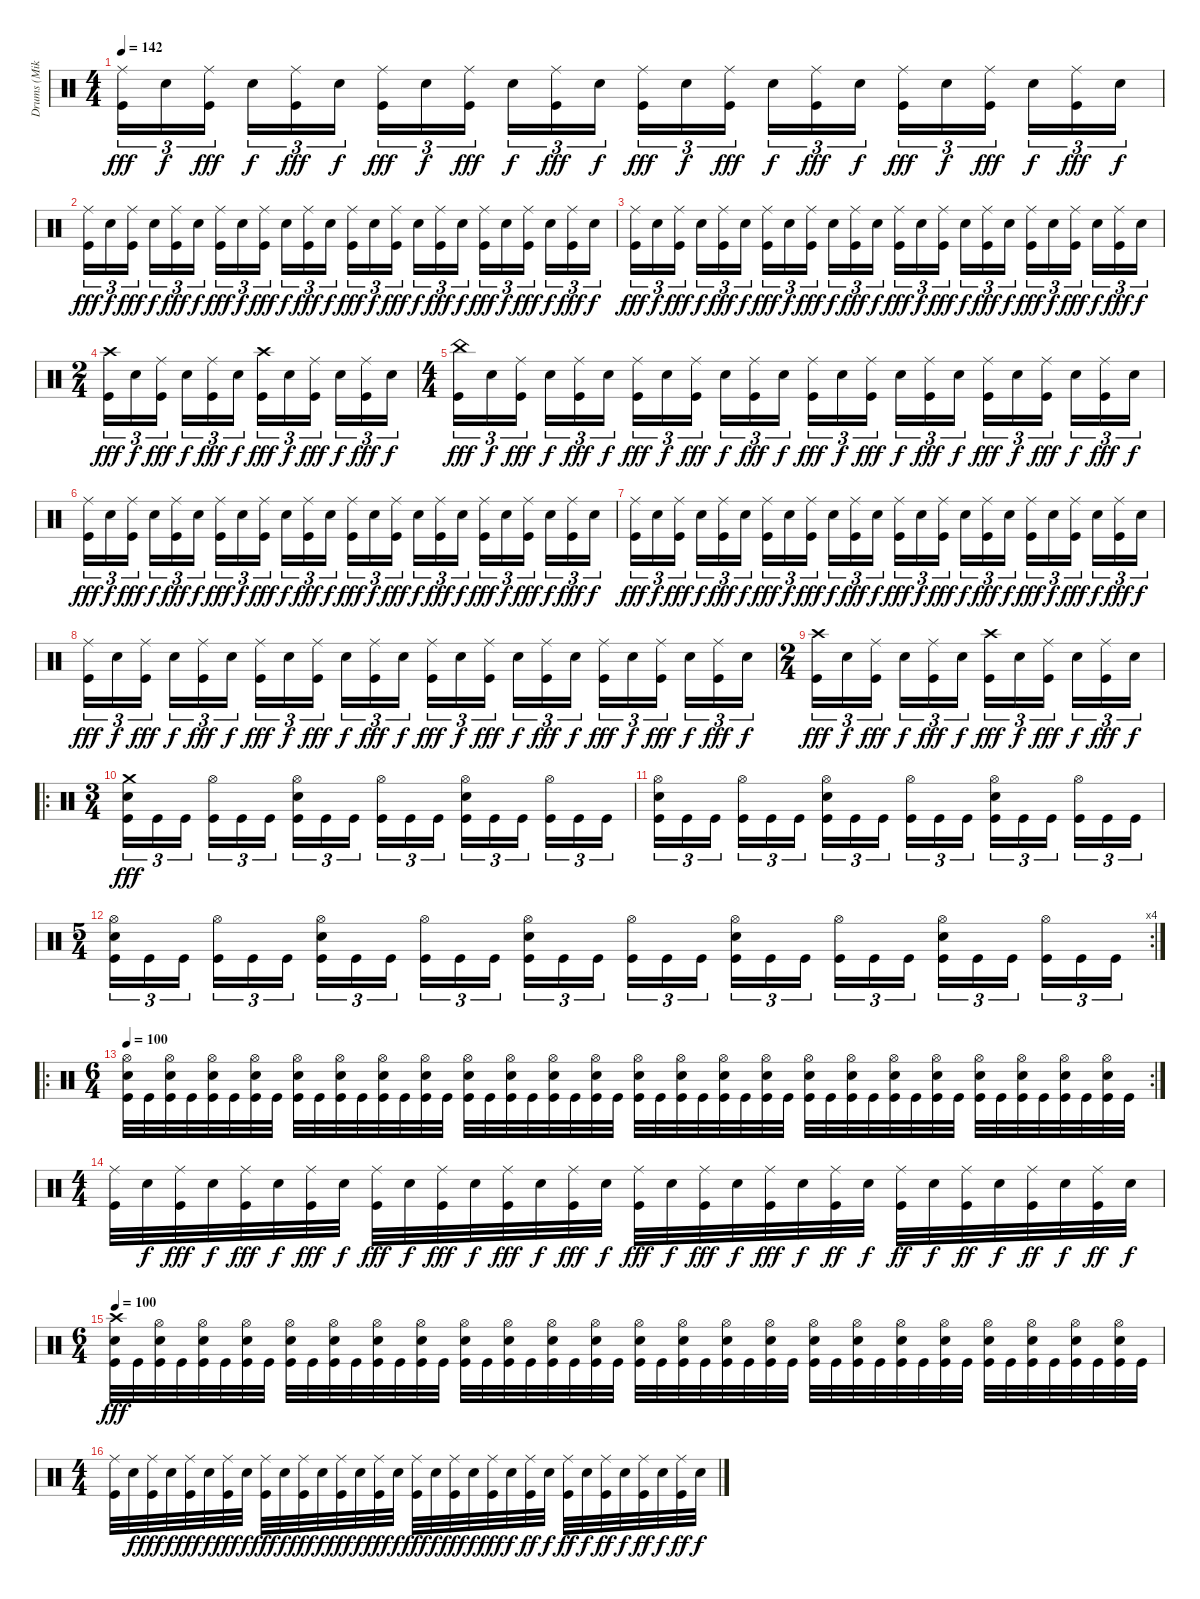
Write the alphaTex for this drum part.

\track ("Drums (Mike)" "Drums (Mik") {instrument percussion}
\staff {score}
\articulation defaults
\ts (4 4)
\tempo 142
\clef neutral
\ks c
("Ride (middle)" "Kick (hit)").16{tu (3 2) dy fff} "Electric Snare (hit)".16{tu (3 2) dy f} ("Ride (middle)" "Kick (hit)").16{tu (3 2) dy fff} "Electric Snare (hit)".16{tu (3 2) dy f} ("Ride (middle)" "Kick (hit)").16{tu (3 2) dy fff} "Electric Snare (hit)".16{tu (3 2) dy f} ("Ride (middle)" "Kick (hit)").16{tu (3 2) dy fff} "Electric Snare (hit)".16{tu (3 2) dy f} ("Ride (middle)" "Kick (hit)").16{tu (3 2) dy fff} "Electric Snare (hit)".16{tu (3 2) dy f} ("Ride (middle)" "Kick (hit)").16{tu (3 2) dy fff} "Electric Snare (hit)".16{tu (3 2) dy f} ("Ride (middle)" "Kick (hit)").16{tu (3 2) dy fff} "Electric Snare (hit)".16{tu (3 2) dy f} ("Ride (middle)" "Kick (hit)").16{tu (3 2) dy fff} "Electric Snare (hit)".16{tu (3 2) dy f} ("Ride (middle)" "Kick (hit)").16{tu (3 2) dy fff} "Electric Snare (hit)".16{tu (3 2) dy f} ("Ride (middle)" "Kick (hit)").16{tu (3 2) dy fff} "Electric Snare (hit)".16{tu (3 2) dy f} ("Ride (middle)" "Kick (hit)").16{tu (3 2) dy fff} "Electric Snare (hit)".16{tu (3 2) dy f} ("Ride (middle)" "Kick (hit)").16{tu (3 2) dy fff} "Electric Snare (hit)".16{tu (3 2) dy f} |
("Ride (middle)" "Kick (hit)").16{tu (3 2) dy fff} "Electric Snare (hit)".16{tu (3 2) dy f} ("Ride (middle)" "Kick (hit)").16{tu (3 2) dy fff} "Electric Snare (hit)".16{tu (3 2) dy f} ("Ride (middle)" "Kick (hit)").16{tu (3 2) dy fff} "Electric Snare (hit)".16{tu (3 2) dy f} ("Ride (middle)" "Kick (hit)").16{tu (3 2) dy fff} "Electric Snare (hit)".16{tu (3 2) dy f} ("Ride (middle)" "Kick (hit)").16{tu (3 2) dy fff} "Electric Snare (hit)".16{tu (3 2) dy f} ("Ride (middle)" "Kick (hit)").16{tu (3 2) dy fff} "Electric Snare (hit)".16{tu (3 2) dy f} ("Ride (middle)" "Kick (hit)").16{tu (3 2) dy fff} "Electric Snare (hit)".16{tu (3 2) dy f} ("Ride (middle)" "Kick (hit)").16{tu (3 2) dy fff} "Electric Snare (hit)".16{tu (3 2) dy f} ("Ride (middle)" "Kick (hit)").16{tu (3 2) dy fff} "Electric Snare (hit)".16{tu (3 2) dy f} ("Ride (middle)" "Kick (hit)").16{tu (3 2) dy fff} "Electric Snare (hit)".16{tu (3 2) dy f} ("Ride (middle)" "Kick (hit)").16{tu (3 2) dy fff} "Electric Snare (hit)".16{tu (3 2) dy f} ("Ride (middle)" "Kick (hit)").16{tu (3 2) dy fff} "Electric Snare (hit)".16{tu (3 2) dy f} |
("Ride (middle)" "Kick (hit)").16{tu (3 2) dy fff} "Electric Snare (hit)".16{tu (3 2) dy f} ("Ride (middle)" "Kick (hit)").16{tu (3 2) dy fff} "Electric Snare (hit)".16{tu (3 2) dy f} ("Ride (middle)" "Kick (hit)").16{tu (3 2) dy fff} "Electric Snare (hit)".16{tu (3 2) dy f} ("Ride (middle)" "Kick (hit)").16{tu (3 2) dy fff} "Electric Snare (hit)".16{tu (3 2) dy f} ("Ride (middle)" "Kick (hit)").16{tu (3 2) dy fff} "Electric Snare (hit)".16{tu (3 2) dy f} ("Ride (middle)" "Kick (hit)").16{tu (3 2) dy fff} "Electric Snare (hit)".16{tu (3 2) dy f} ("Ride (middle)" "Kick (hit)").16{tu (3 2) dy fff} "Electric Snare (hit)".16{tu (3 2) dy f} ("Ride (middle)" "Kick (hit)").16{tu (3 2) dy fff} "Electric Snare (hit)".16{tu (3 2) dy f} ("Ride (middle)" "Kick (hit)").16{tu (3 2) dy fff} "Electric Snare (hit)".16{tu (3 2) dy f} ("Ride (middle)" "Kick (hit)").16{tu (3 2) dy fff} "Electric Snare (hit)".16{tu (3 2) dy f} ("Ride (middle)" "Kick (hit)").16{tu (3 2) dy fff} "Electric Snare (hit)".16{tu (3 2) dy f} ("Ride (middle)" "Kick (hit)").16{tu (3 2) dy fff} "Electric Snare (hit)".16{tu (3 2) dy f} |
\ts (2 4)
("Crash high (hit)" "Kick (hit)").16{tu (3 2) dy fff} "Electric Snare (hit)".16{tu (3 2) dy f} ("Ride (middle)" "Kick (hit)").16{tu (3 2) dy fff} "Electric Snare (hit)".16{tu (3 2) dy f} ("Ride (middle)" "Kick (hit)").16{tu (3 2) dy fff} "Electric Snare (hit)".16{tu (3 2) dy f} ("Crash high (hit)" "Kick (hit)").16{tu (3 2) dy fff} "Electric Snare (hit)".16{tu (3 2) dy f} ("Ride (middle)" "Kick (hit)").16{tu (3 2) dy fff} "Electric Snare (hit)".16{tu (3 2) dy f} ("Ride (middle)" "Kick (hit)").16{tu (3 2) dy fff} "Electric Snare (hit)".16{tu (3 2) dy f} |
\ts (4 4)
("China (hit)" "Kick (hit)").16{tu (3 2) dy fff} "Electric Snare (hit)".16{tu (3 2) dy f} ("Ride (middle)" "Kick (hit)").16{tu (3 2) dy fff} "Electric Snare (hit)".16{tu (3 2) dy f} ("Ride (middle)" "Kick (hit)").16{tu (3 2) dy fff} "Electric Snare (hit)".16{tu (3 2) dy f} ("Ride (middle)" "Kick (hit)").16{tu (3 2) dy fff} "Electric Snare (hit)".16{tu (3 2) dy f} ("Ride (middle)" "Kick (hit)").16{tu (3 2) dy fff} "Electric Snare (hit)".16{tu (3 2) dy f} ("Ride (middle)" "Kick (hit)").16{tu (3 2) dy fff} "Electric Snare (hit)".16{tu (3 2) dy f} ("Ride (middle)" "Kick (hit)").16{tu (3 2) dy fff} "Electric Snare (hit)".16{tu (3 2) dy f} ("Ride (middle)" "Kick (hit)").16{tu (3 2) dy fff} "Electric Snare (hit)".16{tu (3 2) dy f} ("Ride (middle)" "Kick (hit)").16{tu (3 2) dy fff} "Electric Snare (hit)".16{tu (3 2) dy f} ("Ride (middle)" "Kick (hit)").16{tu (3 2) dy fff} "Electric Snare (hit)".16{tu (3 2) dy f} ("Ride (middle)" "Kick (hit)").16{tu (3 2) dy fff} "Electric Snare (hit)".16{tu (3 2) dy f} ("Ride (middle)" "Kick (hit)").16{tu (3 2) dy fff} "Electric Snare (hit)".16{tu (3 2) dy f} |
("Ride (middle)" "Kick (hit)").16{tu (3 2) dy fff} "Electric Snare (hit)".16{tu (3 2) dy f} ("Ride (middle)" "Kick (hit)").16{tu (3 2) dy fff} "Electric Snare (hit)".16{tu (3 2) dy f} ("Ride (middle)" "Kick (hit)").16{tu (3 2) dy fff} "Electric Snare (hit)".16{tu (3 2) dy f} ("Ride (middle)" "Kick (hit)").16{tu (3 2) dy fff} "Electric Snare (hit)".16{tu (3 2) dy f} ("Ride (middle)" "Kick (hit)").16{tu (3 2) dy fff} "Electric Snare (hit)".16{tu (3 2) dy f} ("Ride (middle)" "Kick (hit)").16{tu (3 2) dy fff} "Electric Snare (hit)".16{tu (3 2) dy f} ("Ride (middle)" "Kick (hit)").16{tu (3 2) dy fff} "Electric Snare (hit)".16{tu (3 2) dy f} ("Ride (middle)" "Kick (hit)").16{tu (3 2) dy fff} "Electric Snare (hit)".16{tu (3 2) dy f} ("Ride (middle)" "Kick (hit)").16{tu (3 2) dy fff} "Electric Snare (hit)".16{tu (3 2) dy f} ("Ride (middle)" "Kick (hit)").16{tu (3 2) dy fff} "Electric Snare (hit)".16{tu (3 2) dy f} ("Ride (middle)" "Kick (hit)").16{tu (3 2) dy fff} "Electric Snare (hit)".16{tu (3 2) dy f} ("Ride (middle)" "Kick (hit)").16{tu (3 2) dy fff} "Electric Snare (hit)".16{tu (3 2) dy f} |
("Ride (middle)" "Kick (hit)").16{tu (3 2) dy fff} "Electric Snare (hit)".16{tu (3 2) dy f} ("Ride (middle)" "Kick (hit)").16{tu (3 2) dy fff} "Electric Snare (hit)".16{tu (3 2) dy f} ("Ride (middle)" "Kick (hit)").16{tu (3 2) dy fff} "Electric Snare (hit)".16{tu (3 2) dy f} ("Ride (middle)" "Kick (hit)").16{tu (3 2) dy fff} "Electric Snare (hit)".16{tu (3 2) dy f} ("Ride (middle)" "Kick (hit)").16{tu (3 2) dy fff} "Electric Snare (hit)".16{tu (3 2) dy f} ("Ride (middle)" "Kick (hit)").16{tu (3 2) dy fff} "Electric Snare (hit)".16{tu (3 2) dy f} ("Ride (middle)" "Kick (hit)").16{tu (3 2) dy fff} "Electric Snare (hit)".16{tu (3 2) dy f} ("Ride (middle)" "Kick (hit)").16{tu (3 2) dy fff} "Electric Snare (hit)".16{tu (3 2) dy f} ("Ride (middle)" "Kick (hit)").16{tu (3 2) dy fff} "Electric Snare (hit)".16{tu (3 2) dy f} ("Ride (middle)" "Kick (hit)").16{tu (3 2) dy fff} "Electric Snare (hit)".16{tu (3 2) dy f} ("Ride (middle)" "Kick (hit)").16{tu (3 2) dy fff} "Electric Snare (hit)".16{tu (3 2) dy f} ("Ride (middle)" "Kick (hit)").16{tu (3 2) dy fff} "Electric Snare (hit)".16{tu (3 2) dy f} |
("Ride (middle)" "Kick (hit)").16{tu (3 2) dy fff} "Electric Snare (hit)".16{tu (3 2) dy f} ("Ride (middle)" "Kick (hit)").16{tu (3 2) dy fff} "Electric Snare (hit)".16{tu (3 2) dy f} ("Ride (middle)" "Kick (hit)").16{tu (3 2) dy fff} "Electric Snare (hit)".16{tu (3 2) dy f} ("Ride (middle)" "Kick (hit)").16{tu (3 2) dy fff} "Electric Snare (hit)".16{tu (3 2) dy f} ("Ride (middle)" "Kick (hit)").16{tu (3 2) dy fff} "Electric Snare (hit)".16{tu (3 2) dy f} ("Ride (middle)" "Kick (hit)").16{tu (3 2) dy fff} "Electric Snare (hit)".16{tu (3 2) dy f} ("Ride (middle)" "Kick (hit)").16{tu (3 2) dy fff} "Electric Snare (hit)".16{tu (3 2) dy f} ("Ride (middle)" "Kick (hit)").16{tu (3 2) dy fff} "Electric Snare (hit)".16{tu (3 2) dy f} ("Ride (middle)" "Kick (hit)").16{tu (3 2) dy fff} "Electric Snare (hit)".16{tu (3 2) dy f} ("Ride (middle)" "Kick (hit)").16{tu (3 2) dy fff} "Electric Snare (hit)".16{tu (3 2) dy f} ("Ride (middle)" "Kick (hit)").16{tu (3 2) dy fff} "Electric Snare (hit)".16{tu (3 2) dy f} ("Ride (middle)" "Kick (hit)").16{tu (3 2) dy fff} "Electric Snare (hit)".16{tu (3 2) dy f} |
\ts (2 4)
("Crash high (hit)" "Kick (hit)").16{tu (3 2) dy fff} "Electric Snare (hit)".16{tu (3 2) dy f} ("Ride (middle)" "Kick (hit)").16{tu (3 2) dy fff} "Electric Snare (hit)".16{tu (3 2) dy f} ("Ride (middle)" "Kick (hit)").16{tu (3 2) dy fff} "Electric Snare (hit)".16{tu (3 2) dy f} ("Crash high (hit)" "Kick (hit)").16{tu (3 2) dy fff} "Electric Snare (hit)".16{tu (3 2) dy f} ("Ride (middle)" "Kick (hit)").16{tu (3 2) dy fff} "Electric Snare (hit)".16{tu (3 2) dy f} ("Ride (middle)" "Kick (hit)").16{tu (3 2) dy fff} "Electric Snare (hit)".16{tu (3 2) dy f} |
\ro
\ts (3 4)
("Crash medium (hit)" "Electric Snare (hit)" "Kick (hit)").16{tu (3 2) dy fff} "Kick (hit)".16{tu (3 2)} "Kick (hit)".16{tu (3 2)} ("Hi-Hat (open)" "Kick (hit)").16{tu (3 2)} "Kick (hit)".16{tu (3 2)} "Kick (hit)".16{tu (3 2)} ("Hi-Hat (open)" "Electric Snare (hit)" "Kick (hit)").16{tu (3 2)} "Kick (hit)".16{tu (3 2)} "Kick (hit)".16{tu (3 2)} ("Hi-Hat (open)" "Kick (hit)").16{tu (3 2)} "Kick (hit)".16{tu (3 2)} "Kick (hit)".16{tu (3 2)} ("Hi-Hat (open)" "Electric Snare (hit)" "Kick (hit)").16{tu (3 2)} "Kick (hit)".16{tu (3 2)} "Kick (hit)".16{tu (3 2)} ("Hi-Hat (open)" "Kick (hit)").16{tu (3 2)} "Kick (hit)".16{tu (3 2)} "Kick (hit)".16{tu (3 2)} |
("Hi-Hat (open)" "Electric Snare (hit)" "Kick (hit)").16{tu (3 2)} "Kick (hit)".16{tu (3 2)} "Kick (hit)".16{tu (3 2)} ("Hi-Hat (open)" "Kick (hit)").16{tu (3 2)} "Kick (hit)".16{tu (3 2)} "Kick (hit)".16{tu (3 2)} ("Hi-Hat (open)" "Electric Snare (hit)" "Kick (hit)").16{tu (3 2)} "Kick (hit)".16{tu (3 2)} "Kick (hit)".16{tu (3 2)} ("Hi-Hat (open)" "Kick (hit)").16{tu (3 2)} "Kick (hit)".16{tu (3 2)} "Kick (hit)".16{tu (3 2)} ("Hi-Hat (open)" "Electric Snare (hit)" "Kick (hit)").16{tu (3 2)} "Kick (hit)".16{tu (3 2)} "Kick (hit)".16{tu (3 2)} ("Hi-Hat (open)" "Kick (hit)").16{tu (3 2)} "Kick (hit)".16{tu (3 2)} "Kick (hit)".16{tu (3 2)} |
\rc 4
\ts (5 4)
("Hi-Hat (open)" "Electric Snare (hit)" "Kick (hit)").16{tu (3 2)} "Kick (hit)".16{tu (3 2)} "Kick (hit)".16{tu (3 2)} ("Hi-Hat (open)" "Kick (hit)").16{tu (3 2)} "Kick (hit)".16{tu (3 2)} "Kick (hit)".16{tu (3 2)} ("Hi-Hat (open)" "Electric Snare (hit)" "Kick (hit)").16{tu (3 2)} "Kick (hit)".16{tu (3 2)} "Kick (hit)".16{tu (3 2)} ("Hi-Hat (open)" "Kick (hit)").16{tu (3 2)} "Kick (hit)".16{tu (3 2)} "Kick (hit)".16{tu (3 2)} ("Hi-Hat (open)" "Electric Snare (hit)" "Kick (hit)").16{tu (3 2)} "Kick (hit)".16{tu (3 2)} "Kick (hit)".16{tu (3 2)} ("Hi-Hat (open)" "Kick (hit)").16{tu (3 2)} "Kick (hit)".16{tu (3 2)} "Kick (hit)".16{tu (3 2)} ("Hi-Hat (open)" "Electric Snare (hit)" "Kick (hit)").16{tu (3 2)} "Kick (hit)".16{tu (3 2)} "Kick (hit)".16{tu (3 2)} ("Hi-Hat (open)" "Kick (hit)").16{tu (3 2)} "Kick (hit)".16{tu (3 2)} "Kick (hit)".16{tu (3 2)} ("Hi-Hat (open)" "Electric Snare (hit)" "Kick (hit)").16{tu (3 2)} "Kick (hit)".16{tu (3 2)} "Kick (hit)".16{tu (3 2)} ("Hi-Hat (open)" "Kick (hit)").16{tu (3 2)} "Kick (hit)".16{tu (3 2)} "Kick (hit)".16{tu (3 2)} |
\ro
\rc 2
\ts (6 4)
\tempo 100
("Hi-Hat (open)" "Electric Snare (hit)" "Kick (hit)").32 "Kick (hit)".32 ("Hi-Hat (open)" "Electric Snare (hit)" "Kick (hit)").32 "Kick (hit)".32 ("Hi-Hat (open)" "Electric Snare (hit)" "Kick (hit)").32 "Kick (hit)".32 ("Hi-Hat (open)" "Electric Snare (hit)" "Kick (hit)").32 "Kick (hit)".32 ("Hi-Hat (open)" "Electric Snare (hit)" "Kick (hit)").32 "Kick (hit)".32 ("Hi-Hat (open)" "Electric Snare (hit)" "Kick (hit)").32 "Kick (hit)".32 ("Hi-Hat (open)" "Electric Snare (hit)" "Kick (hit)").32 "Kick (hit)".32 ("Hi-Hat (open)" "Electric Snare (hit)" "Kick (hit)").32 "Kick (hit)".32 ("Hi-Hat (open)" "Electric Snare (hit)" "Kick (hit)").32 "Kick (hit)".32 ("Hi-Hat (open)" "Electric Snare (hit)" "Kick (hit)").32 "Kick (hit)".32 ("Hi-Hat (open)" "Electric Snare (hit)" "Kick (hit)").32 "Kick (hit)".32 ("Hi-Hat (open)" "Electric Snare (hit)" "Kick (hit)").32 "Kick (hit)".32 ("Hi-Hat (open)" "Electric Snare (hit)" "Kick (hit)").32 "Kick (hit)".32 ("Hi-Hat (open)" "Electric Snare (hit)" "Kick (hit)").32 "Kick (hit)".32 ("Hi-Hat (open)" "Electric Snare (hit)" "Kick (hit)").32 "Kick (hit)".32 ("Hi-Hat (open)" "Electric Snare (hit)" "Kick (hit)").32 "Kick (hit)".32 ("Hi-Hat (open)" "Electric Snare (hit)" "Kick (hit)").32 "Kick (hit)".32 ("Hi-Hat (open)" "Electric Snare (hit)" "Kick (hit)").32 "Kick (hit)".32 ("Hi-Hat (open)" "Electric Snare (hit)" "Kick (hit)").32 "Kick (hit)".32 ("Hi-Hat (open)" "Electric Snare (hit)" "Kick (hit)").32 "Kick (hit)".32 ("Hi-Hat (open)" "Electric Snare (hit)" "Kick (hit)").32 "Kick (hit)".32 ("Hi-Hat (open)" "Electric Snare (hit)" "Kick (hit)").32 "Kick (hit)".32 ("Hi-Hat (open)" "Electric Snare (hit)" "Kick (hit)").32 "Kick (hit)".32 ("Hi-Hat (open)" "Electric Snare (hit)" "Kick (hit)").32 "Kick (hit)".32 |
\ts (4 4)
("Ride (middle)" "Kick (hit)").32 "Electric Snare (hit)".32{dy f} ("Ride (middle)" "Kick (hit)").32{dy fff} "Electric Snare (hit)".32{dy f} ("Ride (middle)" "Kick (hit)").32{dy fff} "Electric Snare (hit)".32{dy f} ("Ride (middle)" "Kick (hit)").32{dy fff} "Electric Snare (hit)".32{dy f} ("Ride (middle)" "Kick (hit)").32{dy fff} "Electric Snare (hit)".32{dy f} ("Ride (middle)" "Kick (hit)").32{dy fff} "Electric Snare (hit)".32{dy f} ("Ride (middle)" "Kick (hit)").32{dy fff} "Electric Snare (hit)".32{dy f} ("Ride (middle)" "Kick (hit)").32{dy fff} "Electric Snare (hit)".32{dy f} ("Ride (middle)" "Kick (hit)").32{dy fff} "Electric Snare (hit)".32{dy f} ("Ride (middle)" "Kick (hit)").32{dy fff} "Electric Snare (hit)".32{dy f} ("Ride (middle)" "Kick (hit)").32{dy fff} "Electric Snare (hit)".32{dy f} ("Ride (middle)" "Kick (hit)").32{dy ff} "Electric Snare (hit)".32{dy f} ("Ride (middle)" "Kick (hit)").32{dy ff} "Electric Snare (hit)".32{dy f} ("Ride (middle)" "Kick (hit)").32{dy ff} "Electric Snare (hit)".32{dy f} ("Ride (middle)" "Kick (hit)").32{dy ff} "Electric Snare (hit)".32{dy f} ("Ride (middle)" "Kick (hit)").32{dy ff} "Electric Snare (hit)".32{dy f} |
\ts (6 4)
\tempo 100
("Crash high (hit)" "Electric Snare (hit)" "Kick (hit)").32{dy fff} "Kick (hit)".32 ("Hi-Hat (open)" "Electric Snare (hit)" "Kick (hit)").32 "Kick (hit)".32 ("Hi-Hat (open)" "Electric Snare (hit)" "Kick (hit)").32 "Kick (hit)".32 ("Hi-Hat (open)" "Electric Snare (hit)" "Kick (hit)").32 "Kick (hit)".32 ("Hi-Hat (open)" "Electric Snare (hit)" "Kick (hit)").32 "Kick (hit)".32 ("Hi-Hat (open)" "Electric Snare (hit)" "Kick (hit)").32 "Kick (hit)".32 ("Hi-Hat (open)" "Electric Snare (hit)" "Kick (hit)").32 "Kick (hit)".32 ("Hi-Hat (open)" "Electric Snare (hit)" "Kick (hit)").32 "Kick (hit)".32 ("Hi-Hat (open)" "Electric Snare (hit)" "Kick (hit)").32 "Kick (hit)".32 ("Hi-Hat (open)" "Electric Snare (hit)" "Kick (hit)").32 "Kick (hit)".32 ("Hi-Hat (open)" "Electric Snare (hit)" "Kick (hit)").32 "Kick (hit)".32 ("Hi-Hat (open)" "Electric Snare (hit)" "Kick (hit)").32 "Kick (hit)".32 ("Hi-Hat (open)" "Electric Snare (hit)" "Kick (hit)").32 "Kick (hit)".32 ("Hi-Hat (open)" "Electric Snare (hit)" "Kick (hit)").32 "Kick (hit)".32 ("Hi-Hat (open)" "Electric Snare (hit)" "Kick (hit)").32 "Kick (hit)".32 ("Hi-Hat (open)" "Electric Snare (hit)" "Kick (hit)").32 "Kick (hit)".32 ("Hi-Hat (open)" "Electric Snare (hit)" "Kick (hit)").32 "Kick (hit)".32 ("Hi-Hat (open)" "Electric Snare (hit)" "Kick (hit)").32 "Kick (hit)".32 ("Hi-Hat (open)" "Electric Snare (hit)" "Kick (hit)").32 "Kick (hit)".32 ("Hi-Hat (open)" "Electric Snare (hit)" "Kick (hit)").32 "Kick (hit)".32 ("Hi-Hat (open)" "Electric Snare (hit)" "Kick (hit)").32 "Kick (hit)".32 ("Hi-Hat (open)" "Electric Snare (hit)" "Kick (hit)").32 "Kick (hit)".32 ("Hi-Hat (open)" "Electric Snare (hit)" "Kick (hit)").32 "Kick (hit)".32 ("Hi-Hat (open)" "Electric Snare (hit)" "Kick (hit)").32 "Kick (hit)".32 |
\ts (4 4)
("Ride (middle)" "Kick (hit)").32 "Electric Snare (hit)".32{dy f} ("Ride (middle)" "Kick (hit)").32{dy fff} "Electric Snare (hit)".32{dy f} ("Ride (middle)" "Kick (hit)").32{dy fff} "Electric Snare (hit)".32{dy f} ("Ride (middle)" "Kick (hit)").32{dy fff} "Electric Snare (hit)".32{dy f} ("Ride (middle)" "Kick (hit)").32{dy fff} "Electric Snare (hit)".32{dy f} ("Ride (middle)" "Kick (hit)").32{dy fff} "Electric Snare (hit)".32{dy f} ("Ride (middle)" "Kick (hit)").32{dy fff} "Electric Snare (hit)".32{dy f} ("Ride (middle)" "Kick (hit)").32{dy fff} "Electric Snare (hit)".32{dy f} ("Ride (middle)" "Kick (hit)").32{dy fff} "Electric Snare (hit)".32{dy f} ("Ride (middle)" "Kick (hit)").32{dy fff} "Electric Snare (hit)".32{dy f} ("Ride (middle)" "Kick (hit)").32{dy fff} "Electric Snare (hit)".32{dy f} ("Ride (middle)" "Kick (hit)").32{dy ff} "Electric Snare (hit)".32{dy f} ("Ride (middle)" "Kick (hit)").32{dy ff} "Electric Snare (hit)".32{dy f} ("Ride (middle)" "Kick (hit)").32{dy ff} "Electric Snare (hit)".32{dy f} ("Ride (middle)" "Kick (hit)").32{dy ff} "Electric Snare (hit)".32{dy f} ("Ride (middle)" "Kick (hit)").32{dy ff} "Electric Snare (hit)".32{dy f}
